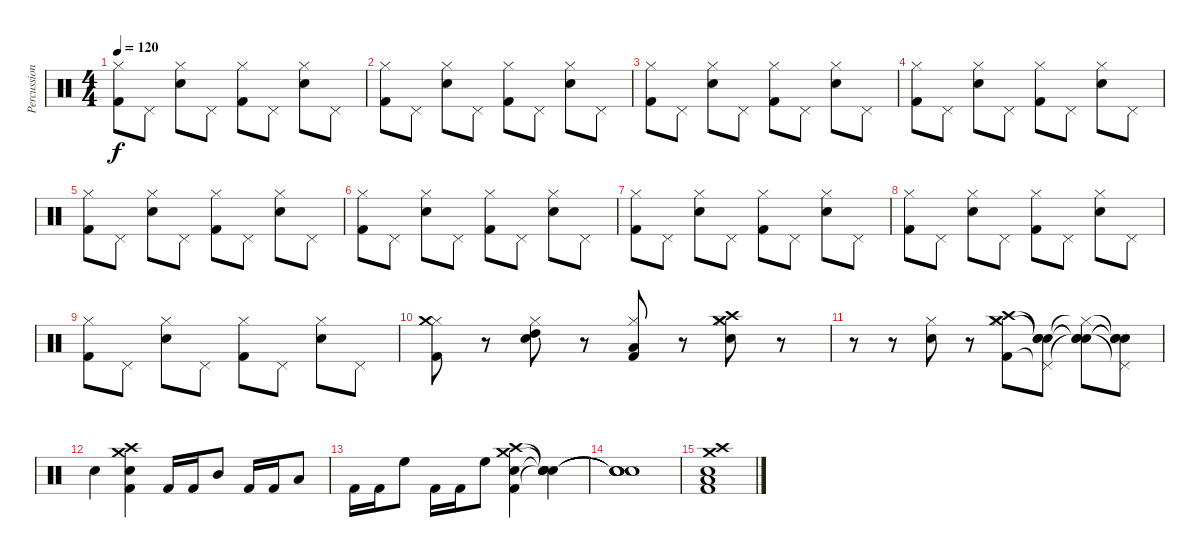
\track ("Percussion" "Percussion") {instrument percussion}
\staff {score}
\articulation defaults
\ts (4 4)
\tempo 120
\clef neutral
\ks c
("Kick (hit) 2" "Hi-Hat (closed)").8{dy f} "Pedal Hi-Hat (hit)".8 ("Snare (hit) 2" "Hi-Hat (closed)").8 "Pedal Hi-Hat (hit)".8 ("Kick (hit) 2" "Hi-Hat (closed)").8 "Pedal Hi-Hat (hit)".8 ("Snare (hit) 2" "Hi-Hat (closed)").8 "Pedal Hi-Hat (hit)".8 |
("Kick (hit) 2" "Hi-Hat (closed)").8 "Pedal Hi-Hat (hit)".8 ("Snare (hit) 2" "Hi-Hat (closed)").8 "Pedal Hi-Hat (hit)".8 ("Kick (hit) 2" "Hi-Hat (closed)").8 "Pedal Hi-Hat (hit)".8 ("Snare (hit) 2" "Hi-Hat (closed)").8 "Pedal Hi-Hat (hit)".8 |
("Kick (hit) 2" "Hi-Hat (closed)").8 "Pedal Hi-Hat (hit)".8 ("Snare (hit) 2" "Hi-Hat (closed)").8 "Pedal Hi-Hat (hit)".8 ("Kick (hit) 2" "Hi-Hat (closed)").8 "Pedal Hi-Hat (hit)".8 ("Snare (hit) 2" "Hi-Hat (closed)").8 "Pedal Hi-Hat (hit)".8 |
("Kick (hit) 2" "Hi-Hat (closed)").8 "Pedal Hi-Hat (hit)".8 ("Snare (hit) 2" "Hi-Hat (closed)").8 "Pedal Hi-Hat (hit)".8 ("Kick (hit) 2" "Hi-Hat (closed)").8 "Pedal Hi-Hat (hit)".8 ("Snare (hit) 2" "Hi-Hat (closed)").8 "Pedal Hi-Hat (hit)".8 |
("Kick (hit) 2" "Hi-Hat (closed)").8 "Pedal Hi-Hat (hit)".8 ("Snare (hit) 2" "Hi-Hat (closed)").8 "Pedal Hi-Hat (hit)".8 ("Kick (hit) 2" "Hi-Hat (closed)").8 "Pedal Hi-Hat (hit)".8 ("Snare (hit) 2" "Hi-Hat (closed)").8 "Pedal Hi-Hat (hit)".8 |
("Kick (hit) 2" "Hi-Hat (closed)").8 "Pedal Hi-Hat (hit)".8 ("Snare (hit) 2" "Hi-Hat (closed)").8 "Pedal Hi-Hat (hit)".8 ("Kick (hit) 2" "Hi-Hat (closed)").8 "Pedal Hi-Hat (hit)".8 ("Snare (hit) 2" "Hi-Hat (closed)").8 "Pedal Hi-Hat (hit)".8 |
("Kick (hit) 2" "Hi-Hat (closed)").8 "Pedal Hi-Hat (hit)".8 ("Snare (hit) 2" "Hi-Hat (closed)").8 "Pedal Hi-Hat (hit)".8 ("Kick (hit) 2" "Hi-Hat (closed)").8 "Pedal Hi-Hat (hit)".8 ("Snare (hit) 2" "Hi-Hat (closed)").8 "Pedal Hi-Hat (hit)".8 |
("Kick (hit) 2" "Hi-Hat (closed)").8 "Pedal Hi-Hat (hit)".8 ("Snare (hit) 2" "Hi-Hat (closed)").8 "Pedal Hi-Hat (hit)".8 ("Kick (hit) 2" "Hi-Hat (closed)").8 "Pedal Hi-Hat (hit)".8 ("Snare (hit) 2" "Hi-Hat (closed)").8 "Pedal Hi-Hat (hit)".8 |
("Kick (hit) 2" "Hi-Hat (closed)").8 "Pedal Hi-Hat (hit)".8 ("Snare (hit) 2" "Hi-Hat (closed)").8 "Pedal Hi-Hat (hit)".8 ("Kick (hit) 2" "Hi-Hat (closed)").8 "Pedal Hi-Hat (hit)".8 ("Snare (hit) 2" "Hi-Hat (closed)").8 "Pedal Hi-Hat (hit)".8 |
("Kick (hit) 2" "Hi-Hat (closed)" "Crash medium (hit)").8 r.8 ("Snare (hit) 2" "Hi-Hat (closed)" "High Tom (hit)").8 r.8 ("Kick (hit) 2" "Hi-Hat (closed)" "Low Tom (hit)").8 r.8 ("Snare (hit) 2" "Hi-Hat (closed)" "Crash high (hit)" "Crash medium (hit)").8 r.8 |
r.8 r.8 ("Snare (hit) 2" "Hi-Hat (closed)").8 r.8 ("Kick (hit) 2" "Hi-Hat (closed)" "Crash medium (hit)" "Crash high (hit)").8 ("Pedal Hi-Hat (hit)"{t} "Snare (hit)"{t} "Snare (hit)"{t} "Snare (hit)"{t}).8 ("Snare (hit) 2"{t} "Hi-Hat (closed)"{t} "Snare (hit)"{t} "Snare (hit)"{t}).8 ("Pedal Hi-Hat (hit)"{t} "Snare (hit)"{t} "Snare (hit)"{t} "Snare (hit)"{t}).8 |
"Snare (hit) 2".4 ("Kick (hit) 2" "Snare (hit) 2" "Crash medium (hit)" "Crash high (hit)").4 "Kick (hit) 2".16 "Kick (hit) 2".16 "Mid Tom (hit)".8 "Kick (hit) 2".16 "Kick (hit) 2".16 "Low Tom (hit)".8 |
"Kick (hit) 2".16 "Kick (hit) 2".16 "High Floor Tom (hit)".8 "Kick (hit) 2".16 "Kick (hit) 2".16 "High Floor Tom (hit)".8 ("Kick (hit) 2" "Snare (hit) 2" "Crash medium (hit)" "Crash high (hit)").4 ("Snare (hit)"{t} "Snare (hit)"{t} "Snare (hit)"{t} "Snare (hit)"{t}).4 |
("Snare (hit)"{t} "Snare (hit)"{t} "Snare (hit)"{t} "Snare (hit)"{t}).1 |
("Low Floor Tom (hit)" "Kick (hit) 2" "Snare (hit) 2" "Crash medium (hit)" "Crash high (hit)").1
